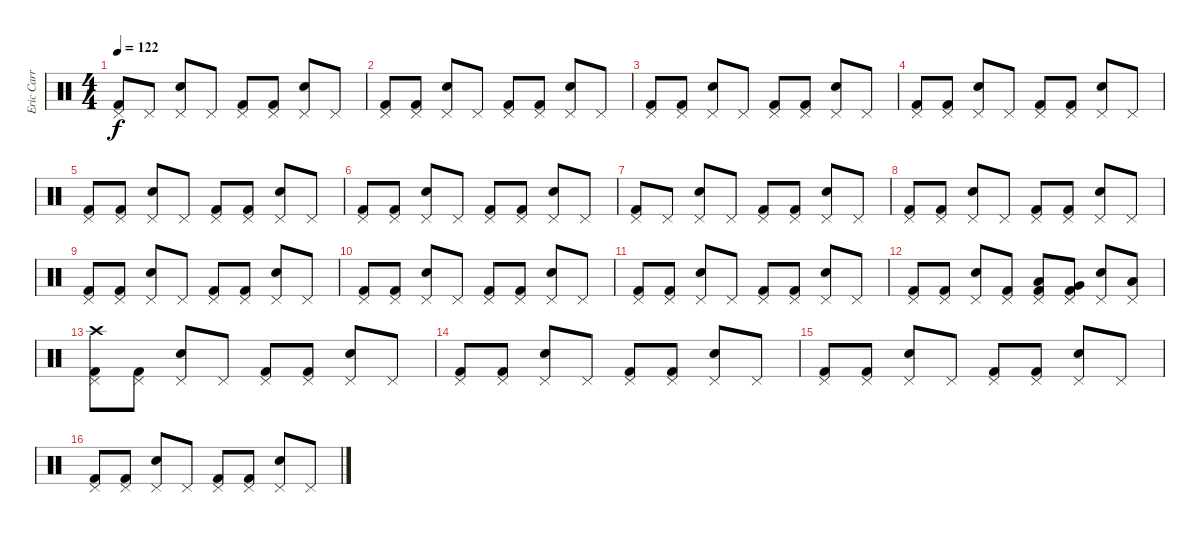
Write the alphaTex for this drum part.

\track ("Eric Carr" "Eric Carr") {instrument percussion}
\staff {score}
\articulation defaults
\ts (4 4)
\tempo 122
\clef neutral
\ks c
("Kick (hit) 2" "Pedal Hi-Hat (hit)").8{dy f} "Pedal Hi-Hat (hit)".8 ("Pedal Hi-Hat (hit)" "Snare (hit) 2").8 "Pedal Hi-Hat (hit)".8 ("Kick (hit) 2" "Pedal Hi-Hat (hit)").8 ("Kick (hit) 2" "Pedal Hi-Hat (hit)").8 ("Pedal Hi-Hat (hit)" "Snare (hit) 2").8 "Pedal Hi-Hat (hit)".8 |
("Kick (hit) 2" "Pedal Hi-Hat (hit)").8 ("Kick (hit) 2" "Pedal Hi-Hat (hit)").8 ("Pedal Hi-Hat (hit)" "Snare (hit) 2").8 "Pedal Hi-Hat (hit)".8 ("Kick (hit) 2" "Pedal Hi-Hat (hit)").8 ("Kick (hit) 2" "Pedal Hi-Hat (hit)").8 ("Pedal Hi-Hat (hit)" "Snare (hit) 2").8 "Pedal Hi-Hat (hit)".8 |
("Kick (hit) 2" "Pedal Hi-Hat (hit)").8 ("Kick (hit) 2" "Pedal Hi-Hat (hit)").8 ("Pedal Hi-Hat (hit)" "Snare (hit) 2").8 "Pedal Hi-Hat (hit)".8 ("Kick (hit) 2" "Pedal Hi-Hat (hit)").8 ("Kick (hit) 2" "Pedal Hi-Hat (hit)").8 ("Pedal Hi-Hat (hit)" "Snare (hit) 2").8 "Pedal Hi-Hat (hit)".8 |
("Kick (hit) 2" "Pedal Hi-Hat (hit)").8 ("Kick (hit) 2" "Pedal Hi-Hat (hit)").8 ("Pedal Hi-Hat (hit)" "Snare (hit) 2").8 "Pedal Hi-Hat (hit)".8 ("Kick (hit) 2" "Pedal Hi-Hat (hit)").8 ("Kick (hit) 2" "Pedal Hi-Hat (hit)").8 ("Pedal Hi-Hat (hit)" "Snare (hit) 2").8 "Pedal Hi-Hat (hit)".8 |
("Kick (hit) 2" "Pedal Hi-Hat (hit)").8 ("Kick (hit) 2" "Pedal Hi-Hat (hit)").8 ("Pedal Hi-Hat (hit)" "Snare (hit) 2").8 "Pedal Hi-Hat (hit)".8 ("Kick (hit) 2" "Pedal Hi-Hat (hit)").8 ("Kick (hit) 2" "Pedal Hi-Hat (hit)").8 ("Pedal Hi-Hat (hit)" "Snare (hit) 2").8 "Pedal Hi-Hat (hit)".8 |
("Kick (hit) 2" "Pedal Hi-Hat (hit)").8 ("Kick (hit) 2" "Pedal Hi-Hat (hit)").8 ("Pedal Hi-Hat (hit)" "Snare (hit) 2").8 "Pedal Hi-Hat (hit)".8 ("Kick (hit) 2" "Pedal Hi-Hat (hit)").8 ("Kick (hit) 2" "Pedal Hi-Hat (hit)").8 ("Pedal Hi-Hat (hit)" "Snare (hit) 2").8 "Pedal Hi-Hat (hit)".8 |
("Kick (hit) 2" "Pedal Hi-Hat (hit)").8 "Pedal Hi-Hat (hit)".8 ("Pedal Hi-Hat (hit)" "Snare (hit) 2").8 "Pedal Hi-Hat (hit)".8 ("Kick (hit) 2" "Pedal Hi-Hat (hit)").8 ("Kick (hit) 2" "Pedal Hi-Hat (hit)").8 ("Pedal Hi-Hat (hit)" "Snare (hit) 2").8 "Pedal Hi-Hat (hit)".8 |
("Kick (hit) 2" "Pedal Hi-Hat (hit)").8 ("Kick (hit) 2" "Pedal Hi-Hat (hit)").8 ("Pedal Hi-Hat (hit)" "Snare (hit) 2").8 "Pedal Hi-Hat (hit)".8 ("Kick (hit) 2" "Pedal Hi-Hat (hit)").8 ("Kick (hit) 2" "Pedal Hi-Hat (hit)").8 ("Pedal Hi-Hat (hit)" "Snare (hit) 2").8 "Pedal Hi-Hat (hit)".8 |
("Kick (hit) 2" "Pedal Hi-Hat (hit)").8 ("Kick (hit) 2" "Pedal Hi-Hat (hit)").8 ("Pedal Hi-Hat (hit)" "Snare (hit) 2").8 "Pedal Hi-Hat (hit)".8 ("Kick (hit) 2" "Pedal Hi-Hat (hit)").8 ("Kick (hit) 2" "Pedal Hi-Hat (hit)").8 ("Pedal Hi-Hat (hit)" "Snare (hit) 2").8 "Pedal Hi-Hat (hit)".8 |
("Kick (hit) 2" "Pedal Hi-Hat (hit)").8 ("Kick (hit) 2" "Pedal Hi-Hat (hit)").8 ("Pedal Hi-Hat (hit)" "Snare (hit) 2").8 "Pedal Hi-Hat (hit)".8 ("Kick (hit) 2" "Pedal Hi-Hat (hit)").8 ("Kick (hit) 2" "Pedal Hi-Hat (hit)").8 ("Pedal Hi-Hat (hit)" "Snare (hit) 2").8 "Pedal Hi-Hat (hit)".8 |
("Kick (hit) 2" "Pedal Hi-Hat (hit)").8 ("Kick (hit) 2" "Pedal Hi-Hat (hit)").8 ("Pedal Hi-Hat (hit)" "Snare (hit) 2").8 "Pedal Hi-Hat (hit)".8 ("Kick (hit) 2" "Pedal Hi-Hat (hit)").8 ("Kick (hit) 2" "Pedal Hi-Hat (hit)").8 ("Pedal Hi-Hat (hit)" "Snare (hit) 2").8 "Pedal Hi-Hat (hit)".8 |
("Kick (hit) 2" "Pedal Hi-Hat (hit)").8 ("Kick (hit) 2" "Pedal Hi-Hat (hit)").8 ("Pedal Hi-Hat (hit)" "Snare (hit) 2").8 ("Kick (hit) 2" "Pedal Hi-Hat (hit)").8 ("Kick (hit) 2" "Pedal Hi-Hat (hit)" "Low Tom (hit)").8 ("Kick (hit) 2" "Pedal Hi-Hat (hit)" "Very Low Tom (hit)").8 ("Pedal Hi-Hat (hit)" "Snare (hit) 2").8 ("Pedal Hi-Hat (hit)" "Low Floor Tom (hit)").8 |
("Kick (hit) 2" "Pedal Hi-Hat (hit)" "Crash high (hit)").8 ("Kick (hit) 2" "Pedal Hi-Hat (hit)").8 ("Pedal Hi-Hat (hit)" "Snare (hit) 2").8 "Pedal Hi-Hat (hit)".8 ("Kick (hit) 2" "Pedal Hi-Hat (hit)").8 ("Kick (hit) 2" "Pedal Hi-Hat (hit)").8 ("Pedal Hi-Hat (hit)" "Snare (hit) 2").8 "Pedal Hi-Hat (hit)".8 |
("Kick (hit) 2" "Pedal Hi-Hat (hit)").8 ("Kick (hit) 2" "Pedal Hi-Hat (hit)").8 ("Pedal Hi-Hat (hit)" "Snare (hit) 2").8 "Pedal Hi-Hat (hit)".8 ("Kick (hit) 2" "Pedal Hi-Hat (hit)").8 ("Kick (hit) 2" "Pedal Hi-Hat (hit)").8 ("Pedal Hi-Hat (hit)" "Snare (hit) 2").8 "Pedal Hi-Hat (hit)".8 |
("Kick (hit) 2" "Pedal Hi-Hat (hit)").8 ("Kick (hit) 2" "Pedal Hi-Hat (hit)").8 ("Pedal Hi-Hat (hit)" "Snare (hit) 2").8 "Pedal Hi-Hat (hit)".8 ("Kick (hit) 2" "Pedal Hi-Hat (hit)").8 ("Kick (hit) 2" "Pedal Hi-Hat (hit)").8 ("Pedal Hi-Hat (hit)" "Snare (hit) 2").8 "Pedal Hi-Hat (hit)".8 |
("Kick (hit) 2" "Pedal Hi-Hat (hit)").8 ("Kick (hit) 2" "Pedal Hi-Hat (hit)").8 ("Pedal Hi-Hat (hit)" "Snare (hit) 2").8 "Pedal Hi-Hat (hit)".8 ("Kick (hit) 2" "Pedal Hi-Hat (hit)").8 ("Kick (hit) 2" "Pedal Hi-Hat (hit)").8 ("Pedal Hi-Hat (hit)" "Snare (hit) 2").8 "Pedal Hi-Hat (hit)".8
